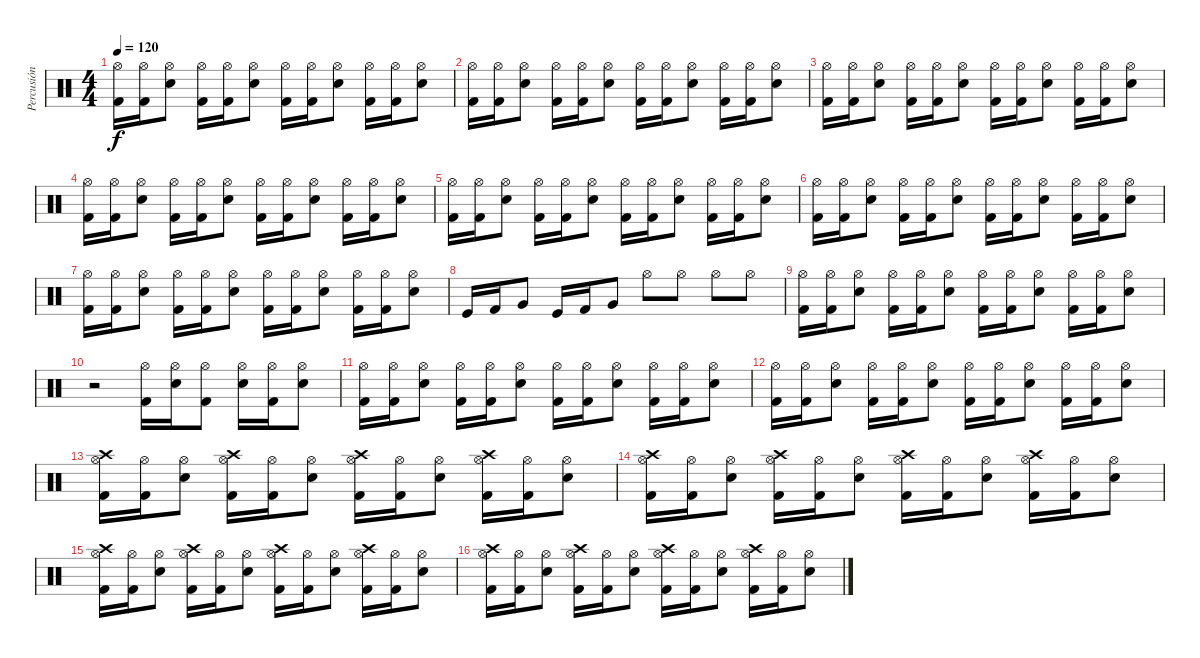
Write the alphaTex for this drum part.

\track ("Percusión" "Percusión") {instrument percussion}
\staff {score}
\articulation defaults
\ts (4 4)
\tempo 120
\clef neutral
\ks c
("Kick (hit) 2" "Hi-Hat (open)").16{dy f} ("Kick (hit) 2" "Hi-Hat (open)").16 ("Snare (hit) 2" "Hi-Hat (open)").8 ("Kick (hit) 2" "Hi-Hat (open)").16 ("Kick (hit) 2" "Hi-Hat (open)").16 ("Snare (hit) 2" "Hi-Hat (open)").8 ("Kick (hit) 2" "Hi-Hat (open)").16 ("Kick (hit) 2" "Hi-Hat (open)").16 ("Snare (hit) 2" "Hi-Hat (open)").8 ("Kick (hit) 2" "Hi-Hat (open)").16 ("Kick (hit) 2" "Hi-Hat (open)").16 ("Snare (hit) 2" "Hi-Hat (open)").8 |
("Kick (hit) 2" "Hi-Hat (open)").16 ("Kick (hit) 2" "Hi-Hat (open)").16 ("Snare (hit) 2" "Hi-Hat (open)").8 ("Kick (hit) 2" "Hi-Hat (open)").16 ("Kick (hit) 2" "Hi-Hat (open)").16 ("Snare (hit) 2" "Hi-Hat (open)").8 ("Kick (hit) 2" "Hi-Hat (open)").16 ("Kick (hit) 2" "Hi-Hat (open)").16 ("Snare (hit) 2" "Hi-Hat (open)").8 ("Kick (hit) 2" "Hi-Hat (open)").16 ("Kick (hit) 2" "Hi-Hat (open)").16 ("Snare (hit) 2" "Hi-Hat (open)").8 |
("Kick (hit) 2" "Hi-Hat (open)").16 ("Kick (hit) 2" "Hi-Hat (open)").16 ("Snare (hit) 2" "Hi-Hat (open)").8 ("Kick (hit) 2" "Hi-Hat (open)").16 ("Kick (hit) 2" "Hi-Hat (open)").16 ("Snare (hit) 2" "Hi-Hat (open)").8 ("Kick (hit) 2" "Hi-Hat (open)").16 ("Kick (hit) 2" "Hi-Hat (open)").16 ("Snare (hit) 2" "Hi-Hat (open)").8 ("Kick (hit) 2" "Hi-Hat (open)").16 ("Kick (hit) 2" "Hi-Hat (open)").16 ("Snare (hit) 2" "Hi-Hat (open)").8 |
("Kick (hit) 2" "Hi-Hat (open)").16 ("Kick (hit) 2" "Hi-Hat (open)").16 ("Snare (hit) 2" "Hi-Hat (open)").8 ("Kick (hit) 2" "Hi-Hat (open)").16 ("Kick (hit) 2" "Hi-Hat (open)").16 ("Snare (hit) 2" "Hi-Hat (open)").8 ("Kick (hit) 2" "Hi-Hat (open)").16 ("Kick (hit) 2" "Hi-Hat (open)").16 ("Snare (hit) 2" "Hi-Hat (open)").8 ("Kick (hit) 2" "Hi-Hat (open)").16 ("Kick (hit) 2" "Hi-Hat (open)").16 ("Snare (hit) 2" "Hi-Hat (open)").8 |
("Kick (hit) 2" "Hi-Hat (open)").16 ("Kick (hit) 2" "Hi-Hat (open)").16 ("Snare (hit) 2" "Hi-Hat (open)").8 ("Kick (hit) 2" "Hi-Hat (open)").16 ("Kick (hit) 2" "Hi-Hat (open)").16 ("Snare (hit) 2" "Hi-Hat (open)").8 ("Kick (hit) 2" "Hi-Hat (open)").16 ("Kick (hit) 2" "Hi-Hat (open)").16 ("Snare (hit) 2" "Hi-Hat (open)").8 ("Kick (hit) 2" "Hi-Hat (open)").16 ("Kick (hit) 2" "Hi-Hat (open)").16 ("Snare (hit) 2" "Hi-Hat (open)").8 |
("Kick (hit) 2" "Hi-Hat (open)").16 ("Kick (hit) 2" "Hi-Hat (open)").16 ("Snare (hit) 2" "Hi-Hat (open)").8 ("Kick (hit) 2" "Hi-Hat (open)").16 ("Kick (hit) 2" "Hi-Hat (open)").16 ("Snare (hit) 2" "Hi-Hat (open)").8 ("Kick (hit) 2" "Hi-Hat (open)").16 ("Kick (hit) 2" "Hi-Hat (open)").16 ("Snare (hit) 2" "Hi-Hat (open)").8 ("Kick (hit) 2" "Hi-Hat (open)").16 ("Kick (hit) 2" "Hi-Hat (open)").16 ("Snare (hit) 2" "Hi-Hat (open)").8 |
("Kick (hit) 2" "Hi-Hat (open)").16 ("Kick (hit) 2" "Hi-Hat (open)").16 ("Snare (hit) 2" "Hi-Hat (open)").8 ("Kick (hit) 2" "Hi-Hat (open)").16 ("Kick (hit) 2" "Hi-Hat (open)").16 ("Snare (hit) 2" "Hi-Hat (open)").8 ("Kick (hit) 2" "Hi-Hat (open)").16 ("Kick (hit) 2" "Hi-Hat (open)").16 ("Snare (hit) 2" "Hi-Hat (open)").8 ("Kick (hit) 2" "Hi-Hat (open)").16 ("Kick (hit) 2" "Hi-Hat (open)").16 ("Snare (hit) 2" "Hi-Hat (open)").8 |
"Kick (hit)".16 "Kick (hit) 2".16 "Very Low Tom (hit)".8 "Kick (hit)".16 "Kick (hit) 2".16 "Very Low Tom (hit)".8 "Hi-Hat (open)".8 "Hi-Hat (open)".8 "Hi-Hat (open)".8 "Hi-Hat (open)".8 |
("Kick (hit) 2" "Hi-Hat (open)").16 ("Kick (hit) 2" "Hi-Hat (open)").16 ("Snare (hit) 2" "Hi-Hat (open)").8 ("Kick (hit) 2" "Hi-Hat (open)").16 ("Kick (hit) 2" "Hi-Hat (open)").16 ("Snare (hit) 2" "Hi-Hat (open)").8 ("Kick (hit) 2" "Hi-Hat (open)").16 ("Kick (hit) 2" "Hi-Hat (open)").16 ("Snare (hit) 2" "Hi-Hat (open)").8 ("Kick (hit) 2" "Hi-Hat (open)").16 ("Kick (hit) 2" "Hi-Hat (open)").16 ("Snare (hit) 2" "Hi-Hat (open)").8 |
r.2 ("Kick (hit) 2" "Hi-Hat (open)").16 ("Snare (hit) 2" "Hi-Hat (open)").16 ("Kick (hit) 2" "Hi-Hat (open)").8 ("Snare (hit) 2" "Hi-Hat (open)").16 ("Kick (hit) 2" "Hi-Hat (open)").16 ("Snare (hit) 2" "Hi-Hat (open)").8 |
("Kick (hit) 2" "Hi-Hat (open)").16 ("Kick (hit) 2" "Hi-Hat (open)").16 ("Snare (hit) 2" "Hi-Hat (open)").8 ("Kick (hit) 2" "Hi-Hat (open)").16 ("Kick (hit) 2" "Hi-Hat (open)").16 ("Snare (hit) 2" "Hi-Hat (open)").8 ("Kick (hit) 2" "Hi-Hat (open)").16 ("Kick (hit) 2" "Hi-Hat (open)").16 ("Snare (hit) 2" "Hi-Hat (open)").8 ("Kick (hit) 2" "Hi-Hat (open)").16 ("Kick (hit) 2" "Hi-Hat (open)").16 ("Snare (hit) 2" "Hi-Hat (open)").8 |
("Kick (hit) 2" "Hi-Hat (open)").16 ("Kick (hit) 2" "Hi-Hat (open)").16 ("Snare (hit) 2" "Hi-Hat (open)").8 ("Kick (hit) 2" "Hi-Hat (open)").16 ("Kick (hit) 2" "Hi-Hat (open)").16 ("Snare (hit) 2" "Hi-Hat (open)").8 ("Kick (hit) 2" "Hi-Hat (open)").16 ("Kick (hit) 2" "Hi-Hat (open)").16 ("Snare (hit) 2" "Hi-Hat (open)").8 ("Kick (hit) 2" "Hi-Hat (open)").16 ("Kick (hit) 2" "Hi-Hat (open)").16 ("Snare (hit) 2" "Hi-Hat (open)").8 |
("Kick (hit) 2" "Hi-Hat (open)" "Crash high (hit)").16 ("Kick (hit) 2" "Hi-Hat (open)").16 ("Snare (hit) 2" "Hi-Hat (open)").8 ("Kick (hit) 2" "Hi-Hat (open)" "Crash high (hit)").16 ("Kick (hit) 2" "Hi-Hat (open)").16 ("Snare (hit) 2" "Hi-Hat (open)").8 ("Kick (hit) 2" "Hi-Hat (open)" "Crash high (hit)").16 ("Kick (hit) 2" "Hi-Hat (open)").16 ("Snare (hit) 2" "Hi-Hat (open)").8 ("Kick (hit) 2" "Hi-Hat (open)" "Crash high (hit)").16 ("Kick (hit) 2" "Hi-Hat (open)").16 ("Snare (hit) 2" "Hi-Hat (open)").8 |
("Kick (hit) 2" "Hi-Hat (open)" "Crash high (hit)").16 ("Kick (hit) 2" "Hi-Hat (open)").16 ("Snare (hit) 2" "Hi-Hat (open)").8 ("Kick (hit) 2" "Hi-Hat (open)" "Crash high (hit)").16 ("Kick (hit) 2" "Hi-Hat (open)").16 ("Snare (hit) 2" "Hi-Hat (open)").8 ("Kick (hit) 2" "Hi-Hat (open)" "Crash high (hit)").16 ("Kick (hit) 2" "Hi-Hat (open)").16 ("Snare (hit) 2" "Hi-Hat (open)").8 ("Kick (hit) 2" "Hi-Hat (open)" "Crash high (hit)").16 ("Kick (hit) 2" "Hi-Hat (open)").16 ("Snare (hit) 2" "Hi-Hat (open)").8 |
("Kick (hit) 2" "Hi-Hat (open)" "Crash high (hit)").16 ("Kick (hit) 2" "Hi-Hat (open)").16 ("Snare (hit) 2" "Hi-Hat (open)").8 ("Kick (hit) 2" "Hi-Hat (open)" "Crash high (hit)").16 ("Kick (hit) 2" "Hi-Hat (open)").16 ("Snare (hit) 2" "Hi-Hat (open)").8 ("Kick (hit) 2" "Hi-Hat (open)" "Crash high (hit)").16 ("Kick (hit) 2" "Hi-Hat (open)").16 ("Snare (hit) 2" "Hi-Hat (open)").8 ("Kick (hit) 2" "Hi-Hat (open)" "Crash high (hit)").16 ("Kick (hit) 2" "Hi-Hat (open)").16 ("Snare (hit) 2" "Hi-Hat (open)").8 |
("Kick (hit) 2" "Hi-Hat (open)" "Crash high (hit)").16 ("Kick (hit) 2" "Hi-Hat (open)").16 ("Snare (hit) 2" "Hi-Hat (open)").8 ("Kick (hit) 2" "Hi-Hat (open)" "Crash high (hit)").16 ("Kick (hit) 2" "Hi-Hat (open)").16 ("Snare (hit) 2" "Hi-Hat (open)").8 ("Kick (hit) 2" "Hi-Hat (open)" "Crash high (hit)").16 ("Kick (hit) 2" "Hi-Hat (open)").16 ("Snare (hit) 2" "Hi-Hat (open)").8 ("Kick (hit) 2" "Hi-Hat (open)" "Crash high (hit)").16 ("Kick (hit) 2" "Hi-Hat (open)").16 ("Snare (hit) 2" "Hi-Hat (open)").8
